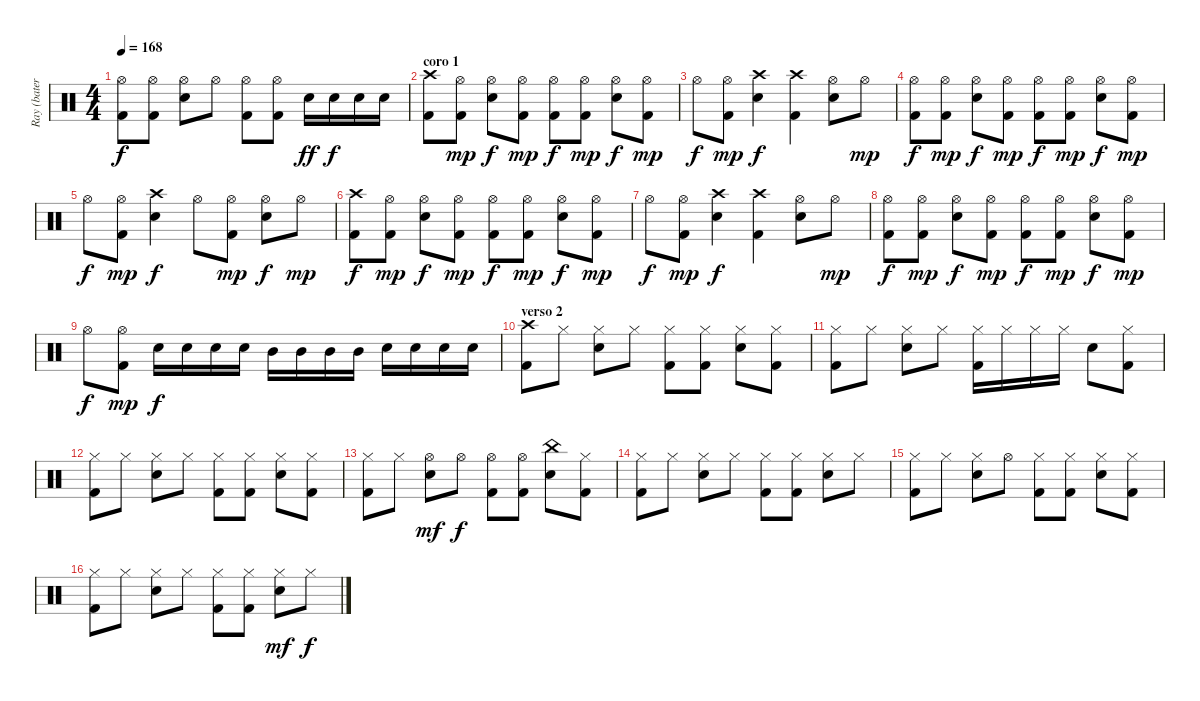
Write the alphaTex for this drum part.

\track ("Ray (batería)" "Ray (bater") {instrument percussion}
\staff {score}
\articulation defaults
\ts (4 4)
\tempo 168
\clef neutral
\ks c
("Hi-Hat (open)" "Kick (hit) 2").8{dy f} ("Hi-Hat (open)" "Kick (hit) 2").8 ("Hi-Hat (open)" "Snare (hit) 2").8 "Hi-Hat (open)".8 ("Hi-Hat (open)" "Kick (hit) 2").8 ("Hi-Hat (open)" "Kick (hit) 2").8 "Snare (hit) 2".16{dy ff} "Snare (hit) 2".16{dy f} "Snare (hit) 2".16 "Snare (hit) 2".16 |
\section ("" "coro 1")
("Crash high (hit)" "Kick (hit) 2").8 ("Hi-Hat (open)" "Kick (hit) 2").8{dy mp} ("Hi-Hat (open)" "Snare (hit) 2").8{dy f} ("Hi-Hat (open)" "Kick (hit) 2").8{dy mp} ("Hi-Hat (open)" "Kick (hit) 2").8{dy f} ("Hi-Hat (open)" "Kick (hit) 2").8{dy mp} ("Hi-Hat (open)" "Snare (hit) 2").8{dy f} ("Hi-Hat (open)" "Kick (hit) 2").8{dy mp} |
"Hi-Hat (open)".8{dy f} ("Hi-Hat (open)" "Kick (hit) 2").8{dy mp} ("Crash high (hit)" "Snare (hit) 2").4{dy f} ("Crash high (hit)" "Kick (hit) 2").4 ("Hi-Hat (open)" "Snare (hit) 2").8 "Hi-Hat (open)".8{dy mp} |
("Hi-Hat (open)" "Kick (hit) 2").8{dy f} ("Hi-Hat (open)" "Kick (hit) 2").8{dy mp} ("Hi-Hat (open)" "Snare (hit) 2").8{dy f} ("Hi-Hat (open)" "Kick (hit) 2").8{dy mp} ("Hi-Hat (open)" "Kick (hit) 2").8{dy f} ("Hi-Hat (open)" "Kick (hit) 2").8{dy mp} ("Hi-Hat (open)" "Snare (hit) 2").8{dy f} ("Hi-Hat (open)" "Kick (hit) 2").8{dy mp} |
"Hi-Hat (open)".8{dy f} ("Hi-Hat (open)" "Kick (hit) 2").8{dy mp} ("Crash high (hit)" "Snare (hit) 2").4{dy f} "Hi-Hat (open)".8 ("Hi-Hat (open)" "Kick (hit) 2").8{dy mp} ("Hi-Hat (open)" "Snare (hit) 2").8{dy f} "Hi-Hat (open)".8{dy mp} |
("Crash high (hit)" "Kick (hit) 2").8{dy f} ("Hi-Hat (open)" "Kick (hit) 2").8{dy mp} ("Hi-Hat (open)" "Snare (hit) 2").8{dy f} ("Hi-Hat (open)" "Kick (hit) 2").8{dy mp} ("Hi-Hat (open)" "Kick (hit) 2").8{dy f} ("Hi-Hat (open)" "Kick (hit) 2").8{dy mp} ("Hi-Hat (open)" "Snare (hit) 2").8{dy f} ("Hi-Hat (open)" "Kick (hit) 2").8{dy mp} |
"Hi-Hat (open)".8{dy f} ("Hi-Hat (open)" "Kick (hit) 2").8{dy mp} ("Crash high (hit)" "Snare (hit) 2").4{dy f} ("Crash high (hit)" "Kick (hit) 2").4 ("Hi-Hat (open)" "Snare (hit) 2").8 "Hi-Hat (open)".8{dy mp} |
("Hi-Hat (open)" "Kick (hit) 2").8{dy f} ("Hi-Hat (open)" "Kick (hit) 2").8{dy mp} ("Hi-Hat (open)" "Snare (hit) 2").8{dy f} ("Hi-Hat (open)" "Kick (hit) 2").8{dy mp} ("Hi-Hat (open)" "Kick (hit) 2").8{dy f} ("Hi-Hat (open)" "Kick (hit) 2").8{dy mp} ("Hi-Hat (open)" "Snare (hit) 2").8{dy f} ("Hi-Hat (open)" "Kick (hit) 2").8{dy mp} |
"Hi-Hat (open)".8{dy f} ("Hi-Hat (open)" "Kick (hit) 2").8{dy mp} "Snare (hit) 2".16{dy f} "Snare (hit) 2".16 "Snare (hit) 2".16 "Snare (hit) 2".16 "Mid Tom (hit)".16 "Mid Tom (hit)".16 "Mid Tom (hit)".16 "Mid Tom (hit)".16 "Snare (hit) 2".16 "Snare (hit) 2".16 "Snare (hit) 2".16 "Snare (hit) 2".16 |
\section ("" "verso 2")
("Crash high (hit)" "Kick (hit) 2").8 "Hi-Hat (closed)".8 ("Hi-Hat (closed)" "Snare (hit) 2").8 "Hi-Hat (closed)".8 ("Hi-Hat (closed)" "Kick (hit) 2").8 ("Hi-Hat (closed)" "Kick (hit) 2").8 ("Hi-Hat (closed)" "Snare (hit) 2").8 ("Hi-Hat (closed)" "Kick (hit) 2").8 |
("Hi-Hat (closed)" "Kick (hit) 2").8 "Hi-Hat (closed)".8 ("Hi-Hat (closed)" "Snare (hit) 2").8 "Hi-Hat (closed)".8 ("Hi-Hat (closed)" "Kick (hit) 2").16 "Hi-Hat (closed)".16 "Hi-Hat (closed)".16 "Hi-Hat (closed)".16 "Snare (hit) 2".8 ("Hi-Hat (closed)" "Kick (hit) 2").8 |
("Hi-Hat (closed)" "Kick (hit) 2").8 "Hi-Hat (closed)".8 ("Hi-Hat (closed)" "Snare (hit) 2").8 "Hi-Hat (closed)".8 ("Hi-Hat (closed)" "Kick (hit) 2").8 ("Hi-Hat (closed)" "Kick (hit) 2").8 ("Hi-Hat (closed)" "Snare (hit) 2").8 ("Hi-Hat (closed)" "Kick (hit) 2").8 |
("Hi-Hat (closed)" "Kick (hit) 2").8 "Hi-Hat (closed)".8 ("Hi-Hat (open)" "Snare (hit) 2").8{dy mf} "Hi-Hat (open)".8{dy f} ("Hi-Hat (open)" "Kick (hit) 2").8 ("Hi-Hat (open)" "Kick (hit) 2").8 ("China (hit)" "Snare (hit) 2").8 ("Hi-Hat (closed)" "Kick (hit) 2").8 |
("Hi-Hat (closed)" "Kick (hit) 2").8 "Hi-Hat (closed)".8 ("Hi-Hat (closed)" "Snare (hit) 2").8 "Hi-Hat (closed)".8 ("Hi-Hat (closed)" "Kick (hit) 2").8 ("Hi-Hat (closed)" "Kick (hit) 2").8 ("Hi-Hat (closed)" "Snare (hit) 2").8 "Hi-Hat (closed)".8 |
("Hi-Hat (closed)" "Kick (hit) 2").8 "Hi-Hat (closed)".8 ("Hi-Hat (closed)" "Snare (hit) 2").8 "Hi-Hat (open)".8 ("Hi-Hat (closed)" "Kick (hit) 2").8 ("Hi-Hat (closed)" "Kick (hit) 2").8 ("Hi-Hat (closed)" "Snare (hit) 2").8 ("Hi-Hat (closed)" "Kick (hit) 2").8 |
("Hi-Hat (closed)" "Kick (hit) 2").8 "Hi-Hat (closed)".8 ("Hi-Hat (closed)" "Snare (hit) 2").8 "Hi-Hat (closed)".8 ("Hi-Hat (closed)" "Kick (hit) 2").8 ("Hi-Hat (closed)" "Kick (hit) 2").8 ("Hi-Hat (closed)" "Snare (hit) 2").8{dy mf} "Hi-Hat (closed)".8{dy f}
